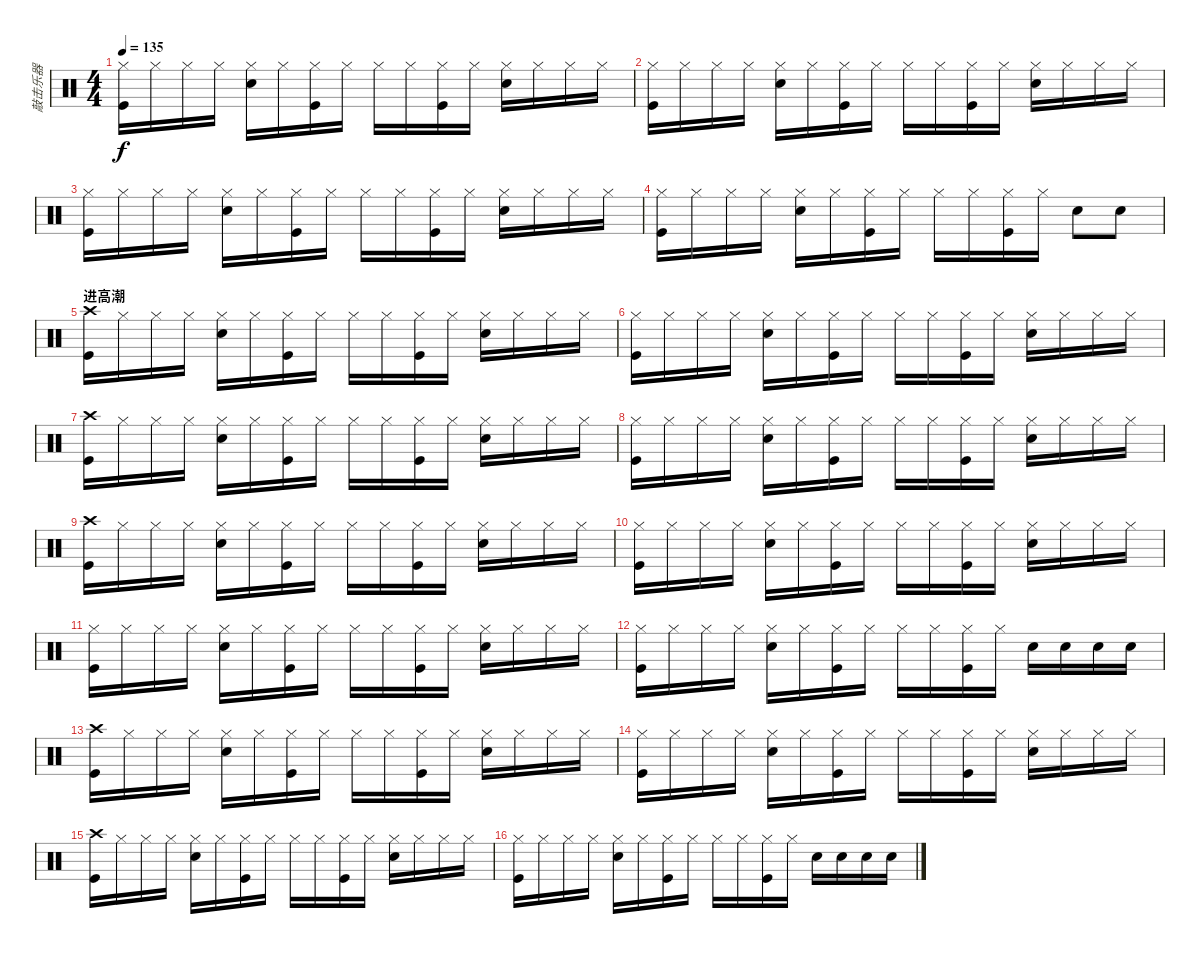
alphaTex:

\track ("敲击乐器" "敲击乐器") {instrument percussion}
\staff {score}
\articulation defaults
\ts (4 4)
\tempo 135
\clef neutral
\ks c
("Hi-Hat (closed)" "Kick (hit)").16{dy f} "Hi-Hat (closed)".16 "Hi-Hat (closed)".16 "Hi-Hat (closed)".16 ("Hi-Hat (closed)" "Snare (hit) 2").16 "Hi-Hat (closed)".16 ("Hi-Hat (closed)" "Kick (hit)").16 "Hi-Hat (closed)".16 "Hi-Hat (closed)".16 "Hi-Hat (closed)".16 ("Hi-Hat (closed)" "Kick (hit)").16 "Hi-Hat (closed)".16 ("Hi-Hat (closed)" "Snare (hit) 2").16 "Hi-Hat (closed)".16 "Hi-Hat (closed)".16 "Hi-Hat (closed)".16 |
("Hi-Hat (closed)" "Kick (hit)").16 "Hi-Hat (closed)".16 "Hi-Hat (closed)".16 "Hi-Hat (closed)".16 ("Hi-Hat (closed)" "Snare (hit) 2").16 "Hi-Hat (closed)".16 ("Hi-Hat (closed)" "Kick (hit)").16 "Hi-Hat (closed)".16 "Hi-Hat (closed)".16 "Hi-Hat (closed)".16 ("Hi-Hat (closed)" "Kick (hit)").16 "Hi-Hat (closed)".16 ("Hi-Hat (closed)" "Snare (hit) 2").16 "Hi-Hat (closed)".16 "Hi-Hat (closed)".16 "Hi-Hat (closed)".16 |
("Hi-Hat (closed)" "Kick (hit)").16 "Hi-Hat (closed)".16 "Hi-Hat (closed)".16 "Hi-Hat (closed)".16 ("Hi-Hat (closed)" "Snare (hit) 2").16 "Hi-Hat (closed)".16 ("Hi-Hat (closed)" "Kick (hit)").16 "Hi-Hat (closed)".16 "Hi-Hat (closed)".16 "Hi-Hat (closed)".16 ("Hi-Hat (closed)" "Kick (hit)").16 "Hi-Hat (closed)".16 ("Hi-Hat (closed)" "Snare (hit) 2").16 "Hi-Hat (closed)".16 "Hi-Hat (closed)".16 "Hi-Hat (closed)".16 |
("Hi-Hat (closed)" "Kick (hit)").16 "Hi-Hat (closed)".16 "Hi-Hat (closed)".16 "Hi-Hat (closed)".16 ("Hi-Hat (closed)" "Snare (hit) 2").16 "Hi-Hat (closed)".16 ("Hi-Hat (closed)" "Kick (hit)").16 "Hi-Hat (closed)".16 "Hi-Hat (closed)".16 "Hi-Hat (closed)".16 ("Hi-Hat (closed)" "Kick (hit)").16 "Hi-Hat (closed)".16 "Snare (hit) 2".8 "Snare (hit) 2".8 |
\section ("" "进高潮")
("Crash high (hit)" "Kick (hit)").16 "Hi-Hat (closed)".16 "Hi-Hat (closed)".16 "Hi-Hat (closed)".16 ("Hi-Hat (closed)" "Snare (hit) 2").16 "Hi-Hat (closed)".16 ("Hi-Hat (closed)" "Kick (hit)").16 "Hi-Hat (closed)".16 "Hi-Hat (closed)".16 "Hi-Hat (closed)".16 ("Hi-Hat (closed)" "Kick (hit)").16 "Hi-Hat (closed)".16 ("Hi-Hat (closed)" "Snare (hit) 2").16 "Hi-Hat (closed)".16 "Hi-Hat (closed)".16 "Hi-Hat (closed)".16 |
("Hi-Hat (closed)" "Kick (hit)").16 "Hi-Hat (closed)".16 "Hi-Hat (closed)".16 "Hi-Hat (closed)".16 ("Hi-Hat (closed)" "Snare (hit) 2").16 "Hi-Hat (closed)".16 ("Hi-Hat (closed)" "Kick (hit)").16 "Hi-Hat (closed)".16 "Hi-Hat (closed)".16 "Hi-Hat (closed)".16 ("Hi-Hat (closed)" "Kick (hit)").16 "Hi-Hat (closed)".16 ("Hi-Hat (closed)" "Snare (hit) 2").16 "Hi-Hat (closed)".16 "Hi-Hat (closed)".16 "Hi-Hat (closed)".16 |
("Crash high (hit)" "Kick (hit)").16 "Hi-Hat (closed)".16 "Hi-Hat (closed)".16 "Hi-Hat (closed)".16 ("Hi-Hat (closed)" "Snare (hit) 2").16 "Hi-Hat (closed)".16 ("Hi-Hat (closed)" "Kick (hit)").16 "Hi-Hat (closed)".16 "Hi-Hat (closed)".16 "Hi-Hat (closed)".16 ("Hi-Hat (closed)" "Kick (hit)").16 "Hi-Hat (closed)".16 ("Hi-Hat (closed)" "Snare (hit) 2").16 "Hi-Hat (closed)".16 "Hi-Hat (closed)".16 "Hi-Hat (closed)".16 |
("Hi-Hat (closed)" "Kick (hit)").16 "Hi-Hat (closed)".16 "Hi-Hat (closed)".16 "Hi-Hat (closed)".16 ("Hi-Hat (closed)" "Snare (hit) 2").16 "Hi-Hat (closed)".16 ("Hi-Hat (closed)" "Kick (hit)").16 "Hi-Hat (closed)".16 "Hi-Hat (closed)".16 "Hi-Hat (closed)".16 ("Hi-Hat (closed)" "Kick (hit)").16 "Hi-Hat (closed)".16 ("Hi-Hat (closed)" "Snare (hit) 2").16 "Hi-Hat (closed)".16 "Hi-Hat (closed)".16 "Hi-Hat (closed)".16 |
("Crash high (hit)" "Kick (hit)").16 "Hi-Hat (closed)".16 "Hi-Hat (closed)".16 "Hi-Hat (closed)".16 ("Hi-Hat (closed)" "Snare (hit) 2").16 "Hi-Hat (closed)".16 ("Hi-Hat (closed)" "Kick (hit)").16 "Hi-Hat (closed)".16 "Hi-Hat (closed)".16 "Hi-Hat (closed)".16 ("Hi-Hat (closed)" "Kick (hit)").16 "Hi-Hat (closed)".16 ("Hi-Hat (closed)" "Snare (hit) 2").16 "Hi-Hat (closed)".16 "Hi-Hat (closed)".16 "Hi-Hat (closed)".16 |
("Hi-Hat (closed)" "Kick (hit)").16 "Hi-Hat (closed)".16 "Hi-Hat (closed)".16 "Hi-Hat (closed)".16 ("Hi-Hat (closed)" "Snare (hit) 2").16 "Hi-Hat (closed)".16 ("Hi-Hat (closed)" "Kick (hit)").16 "Hi-Hat (closed)".16 "Hi-Hat (closed)".16 "Hi-Hat (closed)".16 ("Hi-Hat (closed)" "Kick (hit)").16 "Hi-Hat (closed)".16 ("Hi-Hat (closed)" "Snare (hit) 2").16 "Hi-Hat (closed)".16 "Hi-Hat (closed)".16 "Hi-Hat (closed)".16 |
("Hi-Hat (closed)" "Kick (hit)").16 "Hi-Hat (closed)".16 "Hi-Hat (closed)".16 "Hi-Hat (closed)".16 ("Hi-Hat (closed)" "Snare (hit) 2").16 "Hi-Hat (closed)".16 ("Hi-Hat (closed)" "Kick (hit)").16 "Hi-Hat (closed)".16 "Hi-Hat (closed)".16 "Hi-Hat (closed)".16 ("Hi-Hat (closed)" "Kick (hit)").16 "Hi-Hat (closed)".16 ("Hi-Hat (closed)" "Snare (hit) 2").16 "Hi-Hat (closed)".16 "Hi-Hat (closed)".16 "Hi-Hat (closed)".16 |
("Hi-Hat (closed)" "Kick (hit)").16 "Hi-Hat (closed)".16 "Hi-Hat (closed)".16 "Hi-Hat (closed)".16 ("Hi-Hat (closed)" "Snare (hit) 2").16 "Hi-Hat (closed)".16 ("Hi-Hat (closed)" "Kick (hit)").16 "Hi-Hat (closed)".16 "Hi-Hat (closed)".16 "Hi-Hat (closed)".16 ("Hi-Hat (closed)" "Kick (hit)").16 "Hi-Hat (closed)".16 "Snare (hit) 2".16 "Snare (hit) 2".16 "Snare (hit) 2".16 "Snare (hit) 2".16 |
("Crash high (hit)" "Kick (hit)").16 "Hi-Hat (closed)".16 "Hi-Hat (closed)".16 "Hi-Hat (closed)".16 ("Hi-Hat (closed)" "Snare (hit) 2").16 "Hi-Hat (closed)".16 ("Hi-Hat (closed)" "Kick (hit)").16 "Hi-Hat (closed)".16 "Hi-Hat (closed)".16 "Hi-Hat (closed)".16 ("Hi-Hat (closed)" "Kick (hit)").16 "Hi-Hat (closed)".16 ("Hi-Hat (closed)" "Snare (hit) 2").16 "Hi-Hat (closed)".16 "Hi-Hat (closed)".16 "Hi-Hat (closed)".16 |
("Hi-Hat (closed)" "Kick (hit)").16 "Hi-Hat (closed)".16 "Hi-Hat (closed)".16 "Hi-Hat (closed)".16 ("Hi-Hat (closed)" "Snare (hit) 2").16 "Hi-Hat (closed)".16 ("Hi-Hat (closed)" "Kick (hit)").16 "Hi-Hat (closed)".16 "Hi-Hat (closed)".16 "Hi-Hat (closed)".16 ("Hi-Hat (closed)" "Kick (hit)").16 "Hi-Hat (closed)".16 ("Hi-Hat (closed)" "Snare (hit) 2").16 "Hi-Hat (closed)".16 "Hi-Hat (closed)".16 "Hi-Hat (closed)".16 |
("Crash high (hit)" "Kick (hit)").16 "Hi-Hat (closed)".16 "Hi-Hat (closed)".16 "Hi-Hat (closed)".16 ("Hi-Hat (closed)" "Snare (hit) 2").16 "Hi-Hat (closed)".16 ("Hi-Hat (closed)" "Kick (hit)").16 "Hi-Hat (closed)".16 "Hi-Hat (closed)".16 "Hi-Hat (closed)".16 ("Hi-Hat (closed)" "Kick (hit)").16 "Hi-Hat (closed)".16 ("Hi-Hat (closed)" "Snare (hit) 2").16 "Hi-Hat (closed)".16 "Hi-Hat (closed)".16 "Hi-Hat (closed)".16 |
("Hi-Hat (closed)" "Kick (hit)").16 "Hi-Hat (closed)".16 "Hi-Hat (closed)".16 "Hi-Hat (closed)".16 ("Hi-Hat (closed)" "Snare (hit) 2").16 "Hi-Hat (closed)".16 ("Hi-Hat (closed)" "Kick (hit)").16 "Hi-Hat (closed)".16 "Hi-Hat (closed)".16 "Hi-Hat (closed)".16 ("Hi-Hat (closed)" "Kick (hit)").16 "Hi-Hat (closed)".16 "Snare (hit) 2".16 "Snare (hit) 2".16 "Snare (hit) 2".16 "Snare (hit) 2".16
